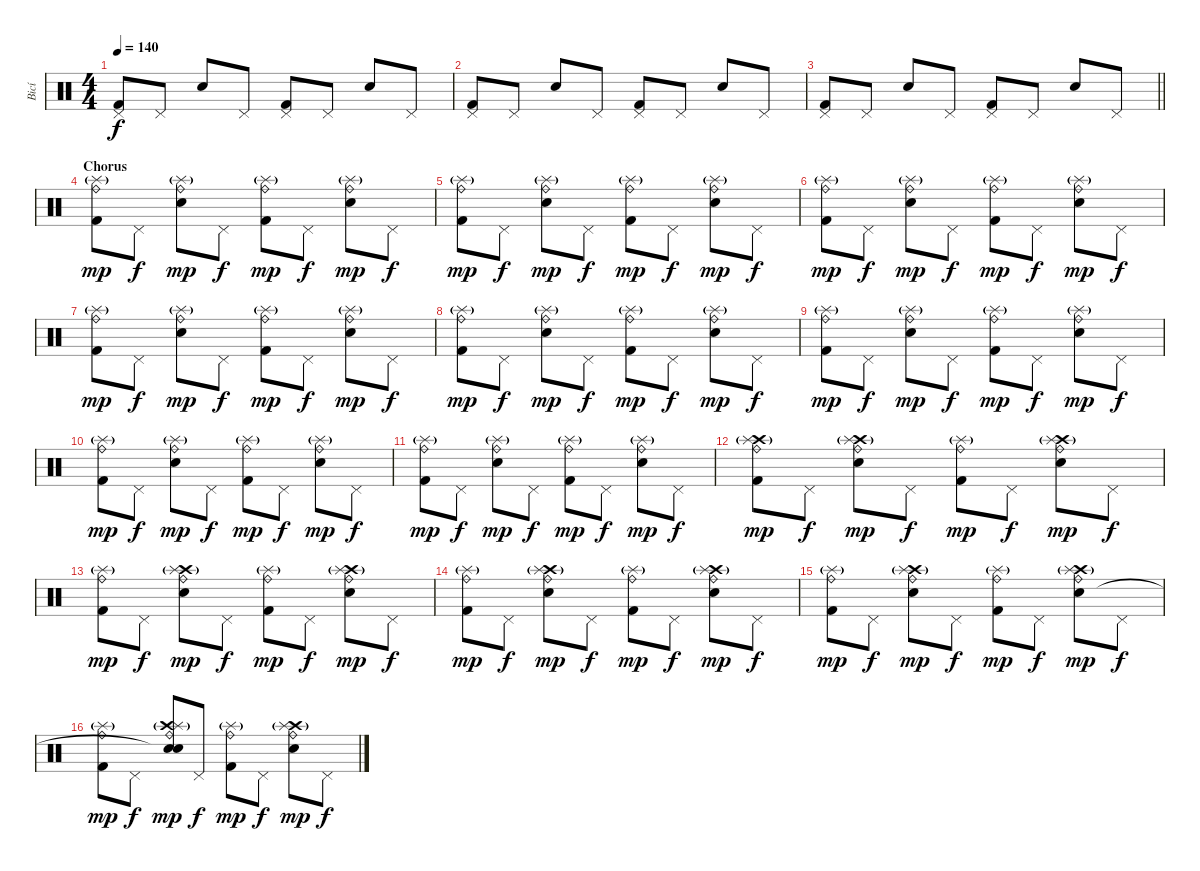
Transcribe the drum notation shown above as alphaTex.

\track ("Bicí" "Bicí") {instrument percussion}
\staff {score}
\articulation defaults
\ts (4 4)
\tempo 140
\clef neutral
\ks c
("Pedal Hi-Hat (hit)" "Kick (hit) 2").8{dy f} "Pedal Hi-Hat (hit)".8 "Electric Snare (hit)".8 "Pedal Hi-Hat (hit)".8 ("Pedal Hi-Hat (hit)" "Kick (hit) 2").8 "Pedal Hi-Hat (hit)".8 "Electric Snare (hit)".8 "Pedal Hi-Hat (hit)".8 |
("Pedal Hi-Hat (hit)" "Kick (hit) 2").8 "Pedal Hi-Hat (hit)".8 "Electric Snare (hit)".8 "Pedal Hi-Hat (hit)".8 ("Pedal Hi-Hat (hit)" "Kick (hit) 2").8 "Pedal Hi-Hat (hit)".8 "Electric Snare (hit)".8 "Pedal Hi-Hat (hit)".8 |
\barLineRight lightlight
("Pedal Hi-Hat (hit)" "Kick (hit) 2").8 "Pedal Hi-Hat (hit)".8 "Electric Snare (hit)".8 "Pedal Hi-Hat (hit)".8 ("Pedal Hi-Hat (hit)" "Kick (hit) 2").8 "Pedal Hi-Hat (hit)".8 "Electric Snare (hit)".8 "Pedal Hi-Hat (hit)".8 |
\section ("" "Chorus")
("Ride (bell)" "Splash (hit)"{g} "Kick (hit) 2").8{dy mp} "Pedal Hi-Hat (hit)".8{dy f} ("Ride (bell)" "Splash (hit)"{g} "Electric Snare (hit)").8{dy mp} "Pedal Hi-Hat (hit)".8{dy f} ("Ride (bell)" "Splash (hit)"{g} "Kick (hit) 2").8{dy mp} "Pedal Hi-Hat (hit)".8{dy f} ("Ride (bell)" "Splash (hit)"{g} "Electric Snare (hit)").8{dy mp} "Pedal Hi-Hat (hit)".8{dy f} |
("Ride (bell)" "Splash (hit)"{g} "Kick (hit) 2").8{dy mp} "Pedal Hi-Hat (hit)".8{dy f} ("Ride (bell)" "Splash (hit)"{g} "Electric Snare (hit)").8{dy mp} "Pedal Hi-Hat (hit)".8{dy f} ("Ride (bell)" "Splash (hit)"{g} "Kick (hit) 2").8{dy mp} "Pedal Hi-Hat (hit)".8{dy f} ("Ride (bell)" "Splash (hit)"{g} "Electric Snare (hit)").8{dy mp} "Pedal Hi-Hat (hit)".8{dy f} |
("Ride (bell)" "Splash (hit)"{g} "Kick (hit) 2").8{dy mp} "Pedal Hi-Hat (hit)".8{dy f} ("Ride (bell)" "Splash (hit)"{g} "Electric Snare (hit)").8{dy mp} "Pedal Hi-Hat (hit)".8{dy f} ("Ride (bell)" "Splash (hit)"{g} "Kick (hit) 2").8{dy mp} "Pedal Hi-Hat (hit)".8{dy f} ("Ride (bell)" "Splash (hit)"{g} "Electric Snare (hit)").8{dy mp} "Pedal Hi-Hat (hit)".8{dy f} |
("Ride (bell)" "Splash (hit)"{g} "Kick (hit) 2").8{dy mp} "Pedal Hi-Hat (hit)".8{dy f} ("Ride (bell)" "Splash (hit)"{g} "Electric Snare (hit)").8{dy mp} "Pedal Hi-Hat (hit)".8{dy f} ("Ride (bell)" "Splash (hit)"{g} "Kick (hit) 2").8{dy mp} "Pedal Hi-Hat (hit)".8{dy f} ("Ride (bell)" "Splash (hit)"{g} "Electric Snare (hit)").8{dy mp} "Pedal Hi-Hat (hit)".8{dy f} |
("Ride (bell)" "Splash (hit)"{g} "Kick (hit) 2").8{dy mp} "Pedal Hi-Hat (hit)".8{dy f} ("Ride (bell)" "Splash (hit)"{g} "Electric Snare (hit)").8{dy mp} "Pedal Hi-Hat (hit)".8{dy f} ("Ride (bell)" "Splash (hit)"{g} "Kick (hit) 2").8{dy mp} "Pedal Hi-Hat (hit)".8{dy f} ("Ride (bell)" "Splash (hit)"{g} "Electric Snare (hit)").8{dy mp} "Pedal Hi-Hat (hit)".8{dy f} |
("Ride (bell)" "Splash (hit)"{g} "Kick (hit) 2").8{dy mp} "Pedal Hi-Hat (hit)".8{dy f} ("Ride (bell)" "Splash (hit)"{g} "Electric Snare (hit)").8{dy mp} "Pedal Hi-Hat (hit)".8{dy f} ("Ride (bell)" "Splash (hit)"{g} "Kick (hit) 2").8{dy mp} "Pedal Hi-Hat (hit)".8{dy f} ("Ride (bell)" "Splash (hit)"{g} "Electric Snare (hit)").8{dy mp} "Pedal Hi-Hat (hit)".8{dy f} |
("Ride (bell)" "Splash (hit)"{g} "Kick (hit) 2").8{dy mp} "Pedal Hi-Hat (hit)".8{dy f} ("Ride (bell)" "Splash (hit)"{g} "Electric Snare (hit)").8{dy mp} "Pedal Hi-Hat (hit)".8{dy f} ("Ride (bell)" "Splash (hit)"{g} "Kick (hit) 2").8{dy mp} "Pedal Hi-Hat (hit)".8{dy f} ("Ride (bell)" "Splash (hit)"{g} "Electric Snare (hit)").8{dy mp} "Pedal Hi-Hat (hit)".8{dy f} |
("Ride (bell)" "Splash (hit)"{g} "Kick (hit) 2").8{dy mp} "Pedal Hi-Hat (hit)".8{dy f} ("Ride (bell)" "Splash (hit)"{g} "Electric Snare (hit)").8{dy mp} "Pedal Hi-Hat (hit)".8{dy f} ("Ride (bell)" "Splash (hit)"{g} "Kick (hit) 2").8{dy mp} "Pedal Hi-Hat (hit)".8{dy f} ("Ride (bell)" "Splash (hit)"{g} "Electric Snare (hit)").8{dy mp} "Pedal Hi-Hat (hit)".8{dy f} |
("Crash high (hit)" "Ride (bell)" "Splash (hit)"{g} "Kick (hit) 2").8{dy mp} "Pedal Hi-Hat (hit)".8{dy f} ("Crash high (hit)" "Ride (bell)" "Splash (hit)"{g} "Electric Snare (hit)").8{dy mp} "Pedal Hi-Hat (hit)".8{dy f} ("Ride (bell)" "Splash (hit)"{g} "Kick (hit) 2").8{dy mp} "Pedal Hi-Hat (hit)".8{dy f} ("Crash high (hit)" "Ride (bell)" "Splash (hit)"{g} "Electric Snare (hit)").8{dy mp} "Pedal Hi-Hat (hit)".8{dy f} |
("Ride (bell)" "Splash (hit)"{g} "Kick (hit) 2").8{dy mp} "Pedal Hi-Hat (hit)".8{dy f} ("Crash high (hit)" "Ride (bell)" "Splash (hit)"{g} "Electric Snare (hit)").8{dy mp} "Pedal Hi-Hat (hit)".8{dy f} ("Ride (bell)" "Splash (hit)"{g} "Kick (hit) 2").8{dy mp} "Pedal Hi-Hat (hit)".8{dy f} ("Crash high (hit)" "Ride (bell)" "Splash (hit)"{g} "Electric Snare (hit)").8{dy mp} "Pedal Hi-Hat (hit)".8{dy f} |
("Ride (bell)" "Splash (hit)"{g} "Kick (hit) 2").8{dy mp} "Pedal Hi-Hat (hit)".8{dy f} ("Crash high (hit)" "Ride (bell)" "Splash (hit)"{g} "Electric Snare (hit)").8{dy mp} "Pedal Hi-Hat (hit)".8{dy f} ("Ride (bell)" "Splash (hit)"{g} "Kick (hit) 2").8{dy mp} "Pedal Hi-Hat (hit)".8{dy f} ("Crash high (hit)" "Ride (bell)" "Splash (hit)"{g} "Electric Snare (hit)").8{dy mp} "Pedal Hi-Hat (hit)".8{dy f} |
("Ride (bell)" "Splash (hit)"{g} "Kick (hit) 2").8{dy mp} "Pedal Hi-Hat (hit)".8{dy f} ("Crash high (hit)" "Ride (bell)" "Splash (hit)"{g} "Electric Snare (hit)").8{dy mp} "Pedal Hi-Hat (hit)".8{dy f} ("Ride (bell)" "Splash (hit)"{g} "Kick (hit) 2").8{dy mp} "Pedal Hi-Hat (hit)".8{dy f} ("Crash high (hit)" "Ride (bell)" "Splash (hit)"{g} "Electric Snare (hit)").8{dy mp} "Pedal Hi-Hat (hit)".8{dy f} |
("Ride (bell)" "Splash (hit)"{g} "Kick (hit) 2").8{dy mp} "Pedal Hi-Hat (hit)".8{dy f} ("Crash high (hit)" "Ride (bell)" "Splash (hit)"{g} "Snare (hit)"{t} "Electric Snare (hit)").8{dy mp} "Pedal Hi-Hat (hit)".8{dy f} ("Ride (bell)" "Splash (hit)"{g} "Kick (hit) 2").8{dy mp} "Pedal Hi-Hat (hit)".8{dy f} ("Crash high (hit)" "Ride (bell)" "Splash (hit)"{g} "Electric Snare (hit)").8{dy mp} "Pedal Hi-Hat (hit)".8{dy f}
